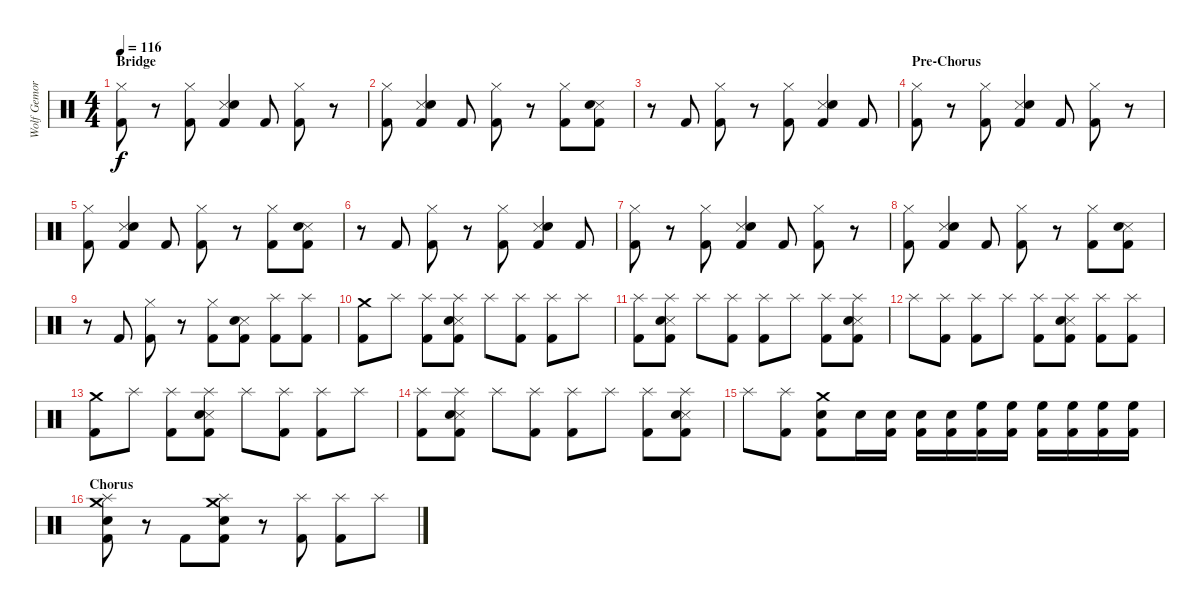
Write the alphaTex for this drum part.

\track ("Wolf Gemora" "Wolf Gemor") {instrument percussion}
\staff {score}
\articulation defaults
\ts (4 4)
\section ("" "Bridge")
\tempo 116
\clef neutral
\ks c
("Hi-Hat (closed)" "Kick (hit) 2").8{dy f balance 8} r.8 ("Hi-Hat (closed)" "Kick (hit) 2").8 ("Snare (side stick) 3" "Snare (hit) 2" "Kick (hit) 2").4 "Kick (hit) 2".8 ("Hi-Hat (closed)" "Kick (hit) 2").8 r.8 |
("Hi-Hat (closed)" "Kick (hit) 2").8 ("Snare (side stick) 3" "Snare (hit) 2" "Kick (hit) 2").4 "Kick (hit) 2".8 ("Hi-Hat (closed)" "Kick (hit) 2").8 r.8 ("Hi-Hat (closed)" "Kick (hit) 2").8 ("Snare (side stick) 3" "Snare (hit) 2" "Kick (hit) 2").8 |
r.8 "Kick (hit) 2".8 ("Hi-Hat (closed)" "Kick (hit) 2").8 r.8 ("Hi-Hat (closed)" "Kick (hit) 2").8 ("Snare (side stick) 3" "Snare (hit) 2" "Kick (hit) 2").4 "Kick (hit) 2".8 |
\section ("" "Pre-Chorus")
("Hi-Hat (closed)" "Kick (hit) 2").8 r.8 ("Hi-Hat (closed)" "Kick (hit) 2").8 ("Snare (side stick) 3" "Snare (hit) 2" "Kick (hit) 2").4 "Kick (hit) 2".8 ("Hi-Hat (closed)" "Kick (hit) 2").8 r.8 |
("Hi-Hat (closed)" "Kick (hit) 2").8 ("Snare (side stick) 3" "Snare (hit) 2" "Kick (hit) 2").4 "Kick (hit) 2".8 ("Hi-Hat (closed)" "Kick (hit) 2").8 r.8 ("Hi-Hat (closed)" "Kick (hit) 2").8 ("Snare (side stick) 3" "Snare (hit) 2" "Kick (hit) 2").8 |
r.8 "Kick (hit) 2".8 ("Hi-Hat (closed)" "Kick (hit) 2").8 r.8 ("Hi-Hat (closed)" "Kick (hit) 2").8 ("Snare (side stick) 3" "Snare (hit) 2" "Kick (hit) 2").4 "Kick (hit) 2".8 |
("Hi-Hat (closed)" "Kick (hit) 2").8 r.8 ("Hi-Hat (closed)" "Kick (hit) 2").8 ("Snare (side stick) 3" "Snare (hit) 2" "Kick (hit) 2").4 "Kick (hit) 2".8 ("Hi-Hat (closed)" "Kick (hit) 2").8 r.8 |
("Hi-Hat (closed)" "Kick (hit) 2").8 ("Snare (side stick) 3" "Snare (hit) 2" "Kick (hit) 2").4 "Kick (hit) 2".8 ("Hi-Hat (closed)" "Kick (hit) 2").8 r.8 ("Hi-Hat (closed)" "Kick (hit) 2").8 ("Snare (side stick) 3" "Snare (hit) 2" "Kick (hit) 2").8 |
r.8 "Kick (hit) 2".8 ("Hi-Hat (closed)" "Kick (hit) 2").8 r.8 ("Hi-Hat (closed)" "Kick (hit) 2").8 ("Snare (side stick) 3" "Snare (hit) 2" "Kick (hit) 2").8 ("Splash (hit)" "Kick (hit) 2").8 ("Splash (hit)" "Kick (hit) 2").8 |
("Crash medium (hit)" "Kick (hit) 2").8 "Splash (hit)".8 ("Splash (hit)" "Kick (hit) 2").8 ("Snare (side stick) 3" "Snare (hit) 2" "Splash (hit)" "Kick (hit) 2").8 "Splash (hit)".8 ("Splash (hit)" "Kick (hit) 2").8 ("Splash (hit)" "Kick (hit) 2").8 "Splash (hit)".8 |
("Splash (hit)" "Kick (hit) 2").8 ("Snare (side stick) 3" "Snare (hit) 2" "Splash (hit)" "Kick (hit) 2").8 "Splash (hit)".8 ("Splash (hit)" "Kick (hit) 2").8 ("Splash (hit)" "Kick (hit) 2").8 "Splash (hit)".8 ("Splash (hit)" "Kick (hit) 2").8 ("Snare (side stick) 3" "Snare (hit) 2" "Splash (hit)" "Kick (hit) 2").8 |
"Splash (hit)".8 ("Splash (hit)" "Kick (hit) 2").8 ("Splash (hit)" "Kick (hit) 2").8 "Splash (hit)".8 ("Splash (hit)" "Kick (hit) 2").8 ("Snare (side stick) 3" "Snare (hit) 2" "Splash (hit)" "Kick (hit) 2").8 ("Splash (hit)" "Kick (hit) 2").8 ("Splash (hit)" "Kick (hit) 2").8 |
("Crash medium (hit)" "Kick (hit) 2").8 "Splash (hit)".8 ("Splash (hit)" "Kick (hit) 2").8 ("Snare (side stick) 3" "Snare (hit) 2" "Splash (hit)" "Kick (hit) 2").8 "Splash (hit)".8 ("Splash (hit)" "Kick (hit) 2").8 ("Splash (hit)" "Kick (hit) 2").8 "Splash (hit)".8 |
("Splash (hit)" "Kick (hit) 2").8 ("Snare (side stick) 3" "Snare (hit) 2" "Splash (hit)" "Kick (hit) 2").8 "Splash (hit)".8 ("Splash (hit)" "Kick (hit) 2").8 ("Splash (hit)" "Kick (hit) 2").8 "Splash (hit)".8 ("Splash (hit)" "Kick (hit) 2").8 ("Snare (side stick) 3" "Snare (hit) 2" "Splash (hit)" "Kick (hit) 2").8 |
"Splash (hit)".8 ("Splash (hit)" "Kick (hit) 2").8 ("Crash medium (hit)" "Snare (hit) 2" "Kick (hit) 2").8 "Snare (hit) 2".16 ("Snare (hit) 2" "Kick (hit) 2").16 ("Snare (hit) 2" "Kick (hit) 2").16 ("Snare (hit) 2" "Kick (hit) 2").16 ("High Floor Tom (hit)" "Kick (hit) 2").16 ("High Floor Tom (hit)" "Kick (hit) 2").16 ("High Floor Tom (hit)" "Kick (hit) 2").16 ("High Floor Tom (hit)" "Kick (hit) 2").16 ("High Floor Tom (hit)" "Kick (hit) 2").16 ("High Floor Tom (hit)" "Kick (hit) 2").16 |
\section ("" "Chorus")
("Crash medium (hit)" "Snare (hit) 2" "Splash (hit)" "Kick (hit) 2").8 r.8 "Kick (hit) 2".8 ("Crash medium (hit)" "Snare (hit) 2" "Splash (hit)" "Kick (hit) 2").8 r.8 ("Splash (hit)" "Kick (hit) 2").8 ("Splash (hit)" "Kick (hit) 2").8 "Splash (hit)".8
